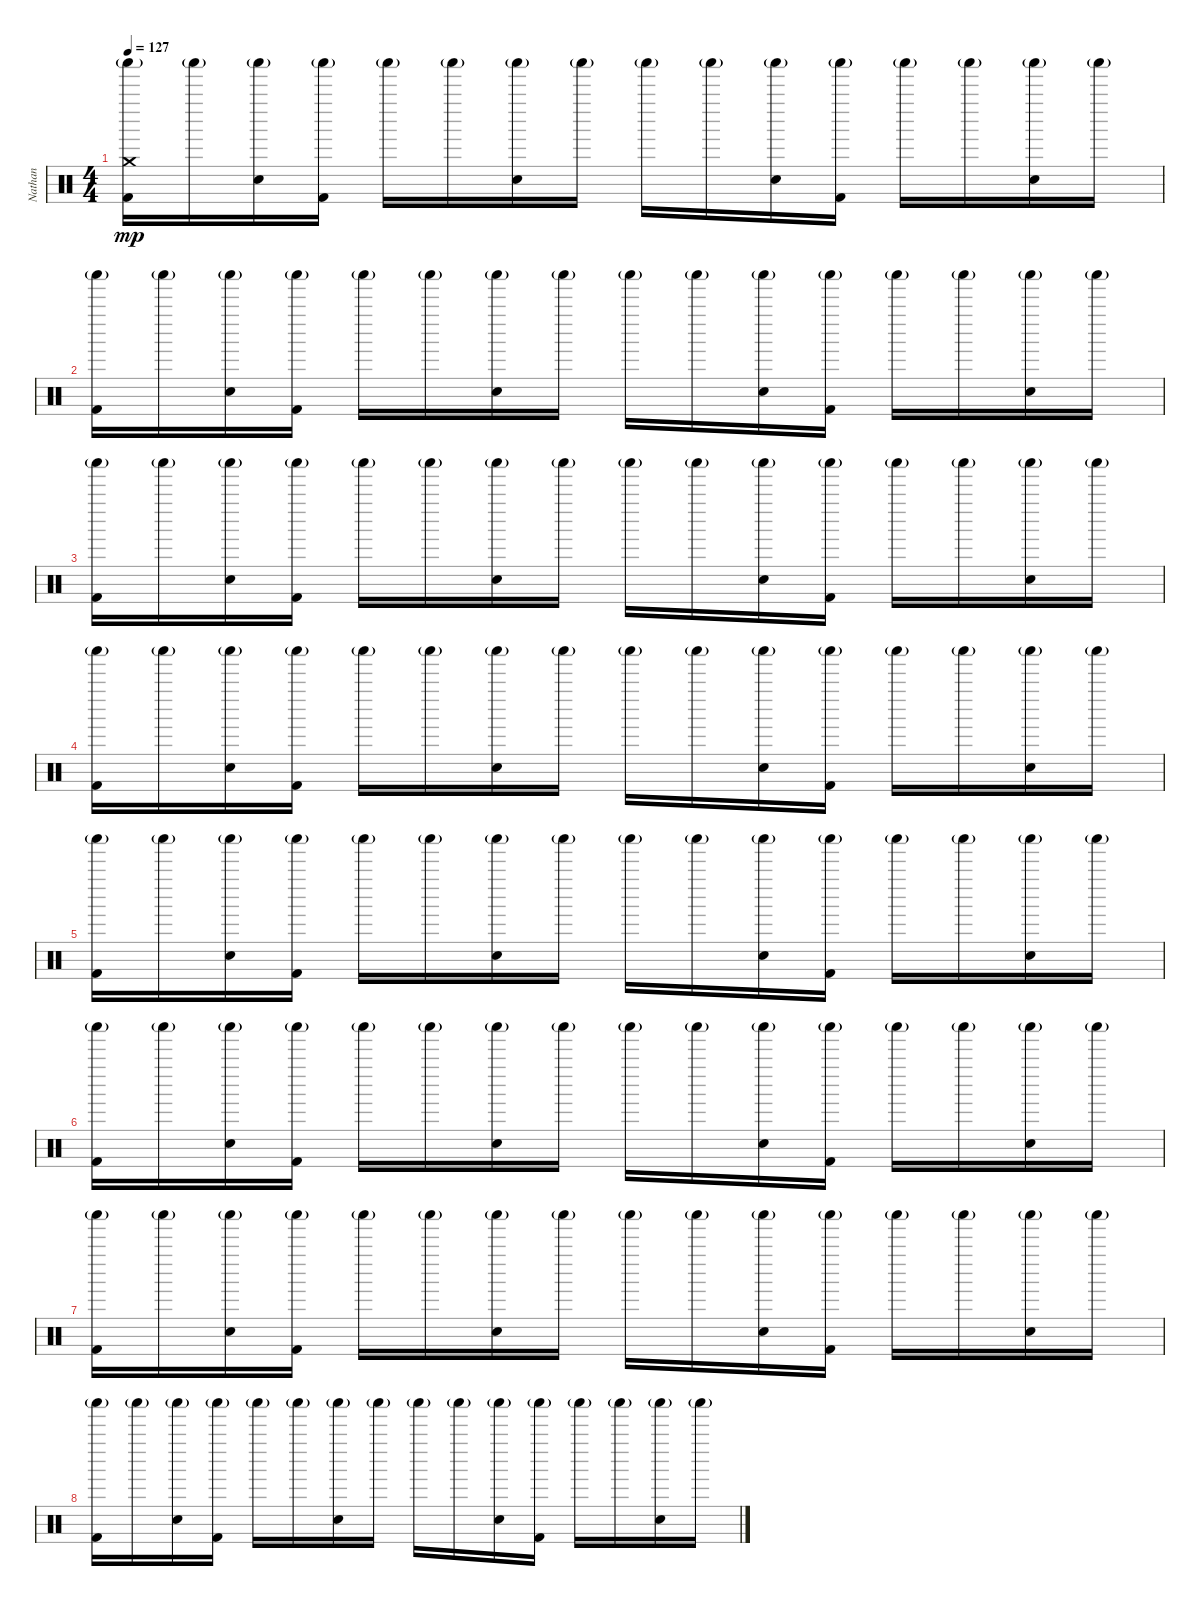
\track ("Nathan" "Nathan") {instrument percussion}
\staff {score}
\articulation defaults
\ts (4 4)
\tempo 127
\clef neutral
\ks c
("Shaker (hit)"{g} "Crash medium (hit)" "Kick (hit) 2").16{dy mp} "Shaker (hit)"{g}.16 ("Shaker (hit)"{g} "Electric Snare (hit)").16 ("Shaker (hit)"{g} "Kick (hit) 2").16 "Shaker (hit)"{g}.16 "Shaker (hit)"{g}.16 ("Shaker (hit)"{g} "Electric Snare (hit)").16 "Shaker (hit)"{g}.16 "Shaker (hit)"{g}.16 "Shaker (hit)"{g}.16 ("Shaker (hit)"{g} "Electric Snare (hit)").16 ("Shaker (hit)"{g} "Kick (hit) 2").16 "Shaker (hit)"{g}.16 "Shaker (hit)"{g}.16 ("Shaker (hit)"{g} "Electric Snare (hit)").16 "Shaker (hit)"{g}.16 |
("Shaker (hit)"{g} "Kick (hit) 2").16 "Shaker (hit)"{g}.16 ("Shaker (hit)"{g} "Electric Snare (hit)").16 ("Shaker (hit)"{g} "Kick (hit) 2").16 "Shaker (hit)"{g}.16 "Shaker (hit)"{g}.16 ("Shaker (hit)"{g} "Electric Snare (hit)").16 "Shaker (hit)"{g}.16 "Shaker (hit)"{g}.16 "Shaker (hit)"{g}.16 ("Shaker (hit)"{g} "Electric Snare (hit)").16 ("Shaker (hit)"{g} "Kick (hit) 2").16 "Shaker (hit)"{g}.16 "Shaker (hit)"{g}.16 ("Shaker (hit)"{g} "Electric Snare (hit)").16 "Shaker (hit)"{g}.16 |
("Shaker (hit)"{g} "Kick (hit) 2").16 "Shaker (hit)"{g}.16 ("Shaker (hit)"{g} "Electric Snare (hit)").16 ("Shaker (hit)"{g} "Kick (hit) 2").16 "Shaker (hit)"{g}.16 "Shaker (hit)"{g}.16 ("Shaker (hit)"{g} "Electric Snare (hit)").16 "Shaker (hit)"{g}.16 "Shaker (hit)"{g}.16 "Shaker (hit)"{g}.16 ("Shaker (hit)"{g} "Electric Snare (hit)").16 ("Shaker (hit)"{g} "Kick (hit) 2").16 "Shaker (hit)"{g}.16 "Shaker (hit)"{g}.16 ("Shaker (hit)"{g} "Electric Snare (hit)").16 "Shaker (hit)"{g}.16 |
("Shaker (hit)"{g} "Kick (hit) 2").16 "Shaker (hit)"{g}.16 ("Shaker (hit)"{g} "Electric Snare (hit)").16 ("Shaker (hit)"{g} "Kick (hit) 2").16 "Shaker (hit)"{g}.16 "Shaker (hit)"{g}.16 ("Shaker (hit)"{g} "Electric Snare (hit)").16 "Shaker (hit)"{g}.16 "Shaker (hit)"{g}.16 "Shaker (hit)"{g}.16 ("Shaker (hit)"{g} "Electric Snare (hit)").16 ("Shaker (hit)"{g} "Kick (hit) 2").16 "Shaker (hit)"{g}.16 "Shaker (hit)"{g}.16 ("Shaker (hit)"{g} "Electric Snare (hit)").16 "Shaker (hit)"{g}.16 |
("Shaker (hit)"{g} "Kick (hit) 2").16 "Shaker (hit)"{g}.16 ("Shaker (hit)"{g} "Electric Snare (hit)").16 ("Shaker (hit)"{g} "Kick (hit) 2").16 "Shaker (hit)"{g}.16 "Shaker (hit)"{g}.16 ("Shaker (hit)"{g} "Electric Snare (hit)").16 "Shaker (hit)"{g}.16 "Shaker (hit)"{g}.16 "Shaker (hit)"{g}.16 ("Shaker (hit)"{g} "Electric Snare (hit)").16 ("Shaker (hit)"{g} "Kick (hit) 2").16 "Shaker (hit)"{g}.16 "Shaker (hit)"{g}.16 ("Shaker (hit)"{g} "Electric Snare (hit)").16 "Shaker (hit)"{g}.16 |
("Shaker (hit)"{g} "Kick (hit) 2").16 "Shaker (hit)"{g}.16 ("Shaker (hit)"{g} "Electric Snare (hit)").16 ("Shaker (hit)"{g} "Kick (hit) 2").16 "Shaker (hit)"{g}.16 "Shaker (hit)"{g}.16 ("Shaker (hit)"{g} "Electric Snare (hit)").16 "Shaker (hit)"{g}.16 "Shaker (hit)"{g}.16 "Shaker (hit)"{g}.16 ("Shaker (hit)"{g} "Electric Snare (hit)").16 ("Shaker (hit)"{g} "Kick (hit) 2").16 "Shaker (hit)"{g}.16 "Shaker (hit)"{g}.16 ("Shaker (hit)"{g} "Electric Snare (hit)").16 "Shaker (hit)"{g}.16 |
("Shaker (hit)"{g} "Kick (hit) 2").16 "Shaker (hit)"{g}.16 ("Shaker (hit)"{g} "Electric Snare (hit)").16 ("Shaker (hit)"{g} "Kick (hit) 2").16 "Shaker (hit)"{g}.16 "Shaker (hit)"{g}.16 ("Shaker (hit)"{g} "Electric Snare (hit)").16 "Shaker (hit)"{g}.16 "Shaker (hit)"{g}.16 "Shaker (hit)"{g}.16 ("Shaker (hit)"{g} "Electric Snare (hit)").16 ("Shaker (hit)"{g} "Kick (hit) 2").16 "Shaker (hit)"{g}.16 "Shaker (hit)"{g}.16 ("Shaker (hit)"{g} "Electric Snare (hit)").16 "Shaker (hit)"{g}.16 |
("Shaker (hit)"{g} "Kick (hit) 2").16 "Shaker (hit)"{g}.16 ("Shaker (hit)"{g} "Electric Snare (hit)").16 ("Shaker (hit)"{g} "Kick (hit) 2").16 "Shaker (hit)"{g}.16 "Shaker (hit)"{g}.16 ("Shaker (hit)"{g} "Electric Snare (hit)").16 "Shaker (hit)"{g}.16 "Shaker (hit)"{g}.16 "Shaker (hit)"{g}.16 ("Shaker (hit)"{g} "Electric Snare (hit)").16 ("Shaker (hit)"{g} "Kick (hit) 2").16 "Shaker (hit)"{g}.16 "Shaker (hit)"{g}.16 ("Shaker (hit)"{g} "Electric Snare (hit)").16 "Shaker (hit)"{g}.16
